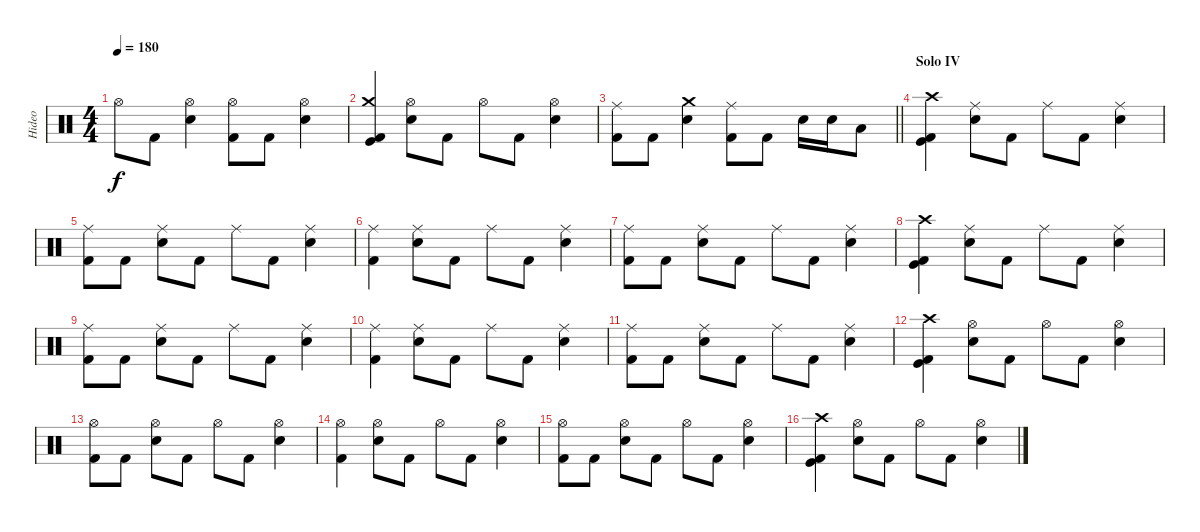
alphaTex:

\track ("Hideo" "Hideo") {instrument percussion}
\staff {score}
\articulation defaults
\ts (4 4)
\tempo 180
\clef neutral
\ks c "Hi-Hat (open)".8{dy f} "Kick (hit) 2".8
("Hi-Hat (open)" "Electric Snare (hit)").4 ("Hi-Hat (open)" "Kick (hit) 2").8 "Kick (hit) 2".8 ("Hi-Hat (open)" "Electric Snare (hit)").4 |
("Crash medium (hit)" "Kick (hit) 2" "Kick (hit)").4 ("Hi-Hat (open)" "Electric Snare (hit)").8 "Kick (hit) 2".8 "Hi-Hat (open)".8 "Kick (hit) 2".8 ("Hi-Hat (open)" "Electric Snare (hit)").4 |
\barLineRight lightlight
("Ride (middle)" "Kick (hit) 2").8 "Kick (hit) 2".8 ("Crash medium (hit)" "Electric Snare (hit)").4 ("Ride (middle)" "Kick (hit) 2").8 "Kick (hit) 2".8 "Electric Snare (hit)".16 "Electric Snare (hit)".16 "Low Tom (hit)".8 |
\section ("" "Solo IV")
("Crash high (hit)" "Kick (hit)" "Kick (hit) 2").4 ("Ride (middle)" "Electric Snare (hit)").8 "Kick (hit) 2".8 "Ride (middle)".8 "Kick (hit) 2".8 ("Ride (middle)" "Electric Snare (hit)").4 |
("Ride (middle)" "Kick (hit) 2").8 "Kick (hit) 2".8 ("Ride (middle)" "Electric Snare (hit)").8 "Kick (hit) 2".8 "Ride (middle)".8 "Kick (hit) 2".8 ("Ride (middle)" "Electric Snare (hit)").4 |
("Ride (middle)" "Kick (hit) 2").4 ("Ride (middle)" "Electric Snare (hit)").8 "Kick (hit) 2".8 "Ride (middle)".8 "Kick (hit) 2".8 ("Ride (middle)" "Electric Snare (hit)").4 |
("Ride (middle)" "Kick (hit) 2").8 "Kick (hit) 2".8 ("Ride (middle)" "Electric Snare (hit)").8 "Kick (hit) 2".8 "Ride (middle)".8 "Kick (hit) 2".8 ("Ride (middle)" "Electric Snare (hit)").4 |
("Crash high (hit)" "Kick (hit)" "Kick (hit) 2").4 ("Ride (middle)" "Electric Snare (hit)").8 "Kick (hit) 2".8 "Ride (middle)".8 "Kick (hit) 2".8 ("Ride (middle)" "Electric Snare (hit)").4 |
("Ride (middle)" "Kick (hit) 2").8 "Kick (hit) 2".8 ("Ride (middle)" "Electric Snare (hit)").8 "Kick (hit) 2".8 "Ride (middle)".8 "Kick (hit) 2".8 ("Ride (middle)" "Electric Snare (hit)").4 |
("Ride (middle)" "Kick (hit) 2").4 ("Ride (middle)" "Electric Snare (hit)").8 "Kick (hit) 2".8 "Ride (middle)".8 "Kick (hit) 2".8 ("Ride (middle)" "Electric Snare (hit)").4 |
("Ride (middle)" "Kick (hit) 2").8 "Kick (hit) 2".8 ("Ride (middle)" "Electric Snare (hit)").8 "Kick (hit) 2".8 "Ride (middle)".8 "Kick (hit) 2".8 ("Ride (middle)" "Electric Snare (hit)").4 |
("Crash high (hit)" "Kick (hit)" "Kick (hit) 2").4 ("Hi-Hat (open)" "Electric Snare (hit)").8 "Kick (hit) 2".8 "Hi-Hat (open)".8 "Kick (hit) 2".8 ("Hi-Hat (open)" "Electric Snare (hit)").4 |
("Hi-Hat (open)" "Kick (hit) 2").8 "Kick (hit) 2".8 ("Hi-Hat (open)" "Electric Snare (hit)").8 "Kick (hit) 2".8 "Hi-Hat (open)".8 "Kick (hit) 2".8 ("Hi-Hat (open)" "Electric Snare (hit)").4 |
("Hi-Hat (open)" "Kick (hit) 2").4 ("Hi-Hat (open)" "Electric Snare (hit)").8 "Kick (hit) 2".8 "Hi-Hat (open)".8 "Kick (hit) 2".8 ("Hi-Hat (open)" "Electric Snare (hit)").4 |
("Hi-Hat (open)" "Kick (hit) 2").8 "Kick (hit) 2".8 ("Hi-Hat (open)" "Electric Snare (hit)").8 "Kick (hit) 2".8 "Hi-Hat (open)".8 "Kick (hit) 2".8 ("Hi-Hat (open)" "Electric Snare (hit)").4 |
("Crash high (hit)" "Kick (hit)" "Kick (hit) 2").4 ("Hi-Hat (open)" "Electric Snare (hit)").8 "Kick (hit) 2".8 "Hi-Hat (open)".8 "Kick (hit) 2".8 ("Hi-Hat (open)" "Electric Snare (hit)").4
